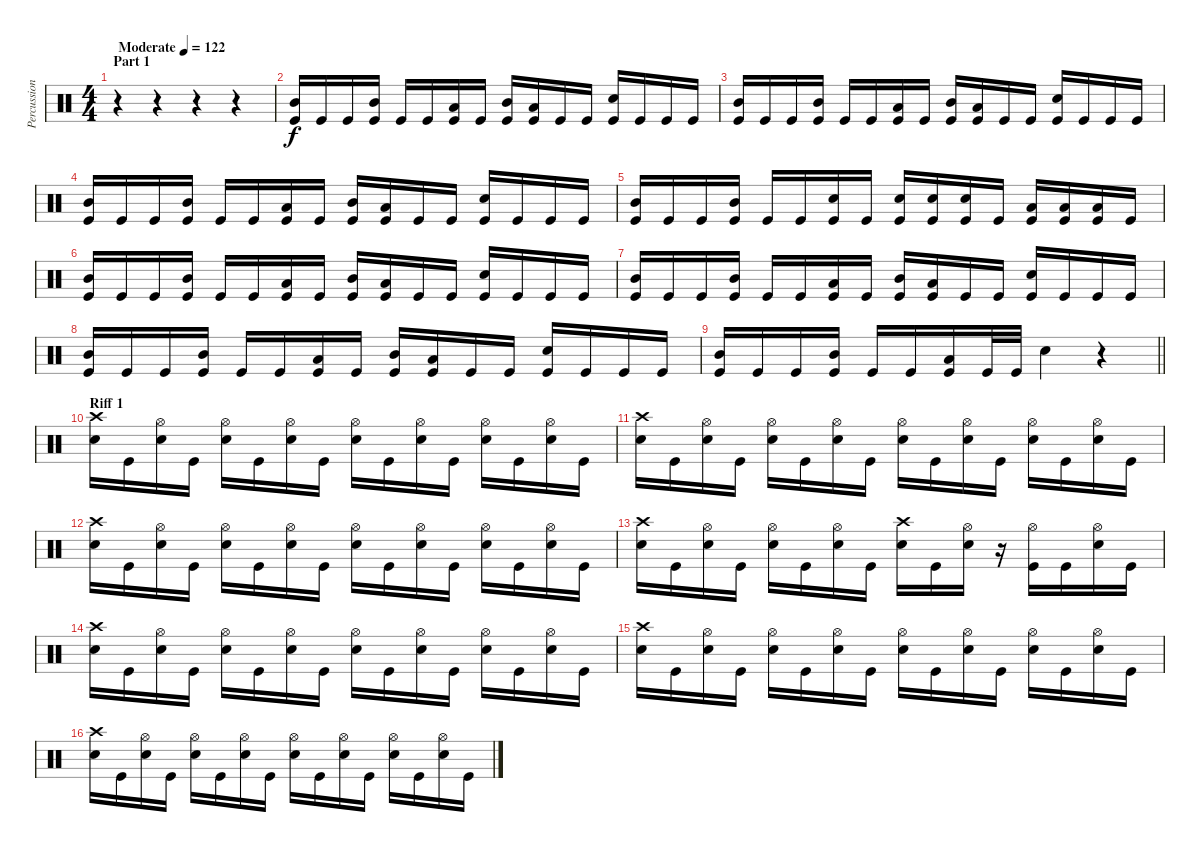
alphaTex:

\track ("Percussion" "Percussion") {instrument percussion}
\staff {score}
\articulation defaults
\ts (4 4)
\section ("" "Part 1")
\tempo (122 "Moderate")
\clef neutral
\ks c
r.4{dy f} r.4 r.4 r.4 |
("Mid Tom (hit)" "Kick (hit)").16 "Kick (hit)".16 "Kick (hit)".16 ("Mid Tom (hit)" "Kick (hit)").16 "Kick (hit)".16 "Kick (hit)".16 ("Low Tom (hit)" "Kick (hit)").16 "Kick (hit)".16 ("Mid Tom (hit)" "Kick (hit)").16 ("Low Tom (hit)" "Kick (hit)").16 "Kick (hit)".16 "Kick (hit)".16 ("Snare (hit) 2" "Kick (hit)").16 "Kick (hit)".16 "Kick (hit)".16 "Kick (hit)".16 |
("Mid Tom (hit)" "Kick (hit)").16 "Kick (hit)".16 "Kick (hit)".16 ("Mid Tom (hit)" "Kick (hit)").16 "Kick (hit)".16 "Kick (hit)".16 ("Low Tom (hit)" "Kick (hit)").16 "Kick (hit)".16 ("Mid Tom (hit)" "Kick (hit)").16 ("Low Tom (hit)" "Kick (hit)").16 "Kick (hit)".16 "Kick (hit)".16 ("Snare (hit) 2" "Kick (hit)").16 "Kick (hit)".16 "Kick (hit)".16 "Kick (hit)".16 |
("Mid Tom (hit)" "Kick (hit)").16 "Kick (hit)".16 "Kick (hit)".16 ("Mid Tom (hit)" "Kick (hit)").16 "Kick (hit)".16 "Kick (hit)".16 ("Low Tom (hit)" "Kick (hit)").16 "Kick (hit)".16 ("Mid Tom (hit)" "Kick (hit)").16 ("Low Tom (hit)" "Kick (hit)").16 "Kick (hit)".16 "Kick (hit)".16 ("Snare (hit) 2" "Kick (hit)").16 "Kick (hit)".16 "Kick (hit)".16 "Kick (hit)".16 |
("Mid Tom (hit)" "Kick (hit)").16 "Kick (hit)".16 "Kick (hit)".16 ("Mid Tom (hit)" "Kick (hit)").16 "Kick (hit)".16 "Kick (hit)".16 ("Snare (hit) 2" "Kick (hit)").16 "Kick (hit)".16 ("Snare (hit) 2" "Kick (hit)").16 ("Snare (hit) 2" "Kick (hit)").16 ("Snare (hit) 2" "Kick (hit)").16 "Kick (hit)".16 ("Low Tom (hit)" "Kick (hit)").16 ("Low Tom (hit)" "Kick (hit)").16 ("Low Tom (hit)" "Kick (hit)").16 "Kick (hit)".16 |
("Mid Tom (hit)" "Kick (hit)").16 "Kick (hit)".16 "Kick (hit)".16 ("Mid Tom (hit)" "Kick (hit)").16 "Kick (hit)".16 "Kick (hit)".16 ("Low Tom (hit)" "Kick (hit)").16 "Kick (hit)".16 ("Mid Tom (hit)" "Kick (hit)").16 ("Low Tom (hit)" "Kick (hit)").16 "Kick (hit)".16 "Kick (hit)".16 ("Snare (hit) 2" "Kick (hit)").16 "Kick (hit)".16 "Kick (hit)".16 "Kick (hit)".16 |
("Mid Tom (hit)" "Kick (hit)").16 "Kick (hit)".16 "Kick (hit)".16 ("Mid Tom (hit)" "Kick (hit)").16 "Kick (hit)".16 "Kick (hit)".16 ("Low Tom (hit)" "Kick (hit)").16 "Kick (hit)".16 ("Mid Tom (hit)" "Kick (hit)").16 ("Low Tom (hit)" "Kick (hit)").16 "Kick (hit)".16 "Kick (hit)".16 ("Snare (hit) 2" "Kick (hit)").16 "Kick (hit)".16 "Kick (hit)".16 "Kick (hit)".16 |
("Mid Tom (hit)" "Kick (hit)").16 "Kick (hit)".16 "Kick (hit)".16 ("Mid Tom (hit)" "Kick (hit)").16 "Kick (hit)".16 "Kick (hit)".16 ("Low Tom (hit)" "Kick (hit)").16 "Kick (hit)".16 ("Mid Tom (hit)" "Kick (hit)").16 ("Low Tom (hit)" "Kick (hit)").16 "Kick (hit)".16 "Kick (hit)".16 ("Snare (hit) 2" "Kick (hit)").16 "Kick (hit)".16 "Kick (hit)".16 "Kick (hit)".16 |
\barLineRight lightlight
("Mid Tom (hit)" "Kick (hit)").16 "Kick (hit)".16 "Kick (hit)".16 ("Mid Tom (hit)" "Kick (hit)").16 "Kick (hit)".16 "Kick (hit)".16 ("Low Tom (hit)" "Kick (hit)").16 "Kick (hit)".32 "Kick (hit)".32 "Snare (hit) 2".4 r.4 |
\section ("" "Riff 1")
("Crash high (hit)" "Snare (hit) 2").16 "Kick (hit)".16 ("Hi-Hat (open)" "Snare (hit) 2").16 "Kick (hit)".16 ("Hi-Hat (open)" "Snare (hit) 2").16 "Kick (hit)".16 ("Hi-Hat (open)" "Snare (hit) 2").16 "Kick (hit)".16 ("Hi-Hat (open)" "Snare (hit) 2").16 "Kick (hit)".16 ("Hi-Hat (open)" "Snare (hit) 2").16 "Kick (hit)".16 ("Hi-Hat (open)" "Snare (hit) 2").16 "Kick (hit)".16 ("Hi-Hat (open)" "Snare (hit) 2").16 "Kick (hit)".16 |
("Crash high (hit)" "Snare (hit) 2").16 "Kick (hit)".16 ("Hi-Hat (open)" "Snare (hit) 2").16 "Kick (hit)".16 ("Hi-Hat (open)" "Snare (hit) 2").16 "Kick (hit)".16 ("Hi-Hat (open)" "Snare (hit) 2").16 "Kick (hit)".16 ("Hi-Hat (open)" "Snare (hit) 2").16 "Kick (hit)".16 ("Hi-Hat (open)" "Snare (hit) 2").16 "Kick (hit)".16 ("Hi-Hat (open)" "Snare (hit) 2").16 "Kick (hit)".16 ("Hi-Hat (open)" "Snare (hit) 2").16 "Kick (hit)".16 |
("Crash high (hit)" "Snare (hit) 2").16 "Kick (hit)".16 ("Hi-Hat (open)" "Snare (hit) 2").16 "Kick (hit)".16 ("Hi-Hat (open)" "Snare (hit) 2").16 "Kick (hit)".16 ("Hi-Hat (open)" "Snare (hit) 2").16 "Kick (hit)".16 ("Hi-Hat (open)" "Snare (hit) 2").16 "Kick (hit)".16 ("Hi-Hat (open)" "Snare (hit) 2").16 "Kick (hit)".16 ("Hi-Hat (open)" "Snare (hit) 2").16 "Kick (hit)".16 ("Hi-Hat (open)" "Snare (hit) 2").16 "Kick (hit)".16 |
("Crash high (hit)" "Snare (hit) 2").16 "Kick (hit)".16 ("Hi-Hat (open)" "Snare (hit) 2").16 "Kick (hit)".16 ("Hi-Hat (open)" "Snare (hit) 2").16 "Kick (hit)".16 ("Hi-Hat (open)" "Snare (hit) 2").16 "Kick (hit)".16 ("Crash high (hit)" "Snare (hit) 2").16 "Kick (hit)".16 ("Hi-Hat (open)" "Snare (hit) 2").16 r.16 ("Hi-Hat (open)" "Kick (hit)").16 "Kick (hit)".16 ("Hi-Hat (open)" "Snare (hit) 2").16 "Kick (hit)".16 |
("Crash high (hit)" "Snare (hit) 2").16 "Kick (hit)".16 ("Hi-Hat (open)" "Snare (hit) 2").16 "Kick (hit)".16 ("Hi-Hat (open)" "Snare (hit) 2").16 "Kick (hit)".16 ("Hi-Hat (open)" "Snare (hit) 2").16 "Kick (hit)".16 ("Hi-Hat (open)" "Snare (hit) 2").16 "Kick (hit)".16 ("Hi-Hat (open)" "Snare (hit) 2").16 "Kick (hit)".16 ("Hi-Hat (open)" "Snare (hit) 2").16 "Kick (hit)".16 ("Hi-Hat (open)" "Snare (hit) 2").16 "Kick (hit)".16 |
("Crash high (hit)" "Snare (hit) 2").16 "Kick (hit)".16 ("Hi-Hat (open)" "Snare (hit) 2").16 "Kick (hit)".16 ("Hi-Hat (open)" "Snare (hit) 2").16 "Kick (hit)".16 ("Hi-Hat (open)" "Snare (hit) 2").16 "Kick (hit)".16 ("Hi-Hat (open)" "Snare (hit) 2").16 "Kick (hit)".16 ("Hi-Hat (open)" "Snare (hit) 2").16 "Kick (hit)".16 ("Hi-Hat (open)" "Snare (hit) 2").16 "Kick (hit)".16 ("Hi-Hat (open)" "Snare (hit) 2").16 "Kick (hit)".16 |
("Crash high (hit)" "Snare (hit) 2").16 "Kick (hit)".16 ("Hi-Hat (open)" "Snare (hit) 2").16 "Kick (hit)".16 ("Hi-Hat (open)" "Snare (hit) 2").16 "Kick (hit)".16 ("Hi-Hat (open)" "Snare (hit) 2").16 "Kick (hit)".16 ("Hi-Hat (open)" "Snare (hit) 2").16 "Kick (hit)".16 ("Hi-Hat (open)" "Snare (hit) 2").16 "Kick (hit)".16 ("Hi-Hat (open)" "Snare (hit) 2").16 "Kick (hit)".16 ("Hi-Hat (open)" "Snare (hit) 2").16 "Kick (hit)".16
